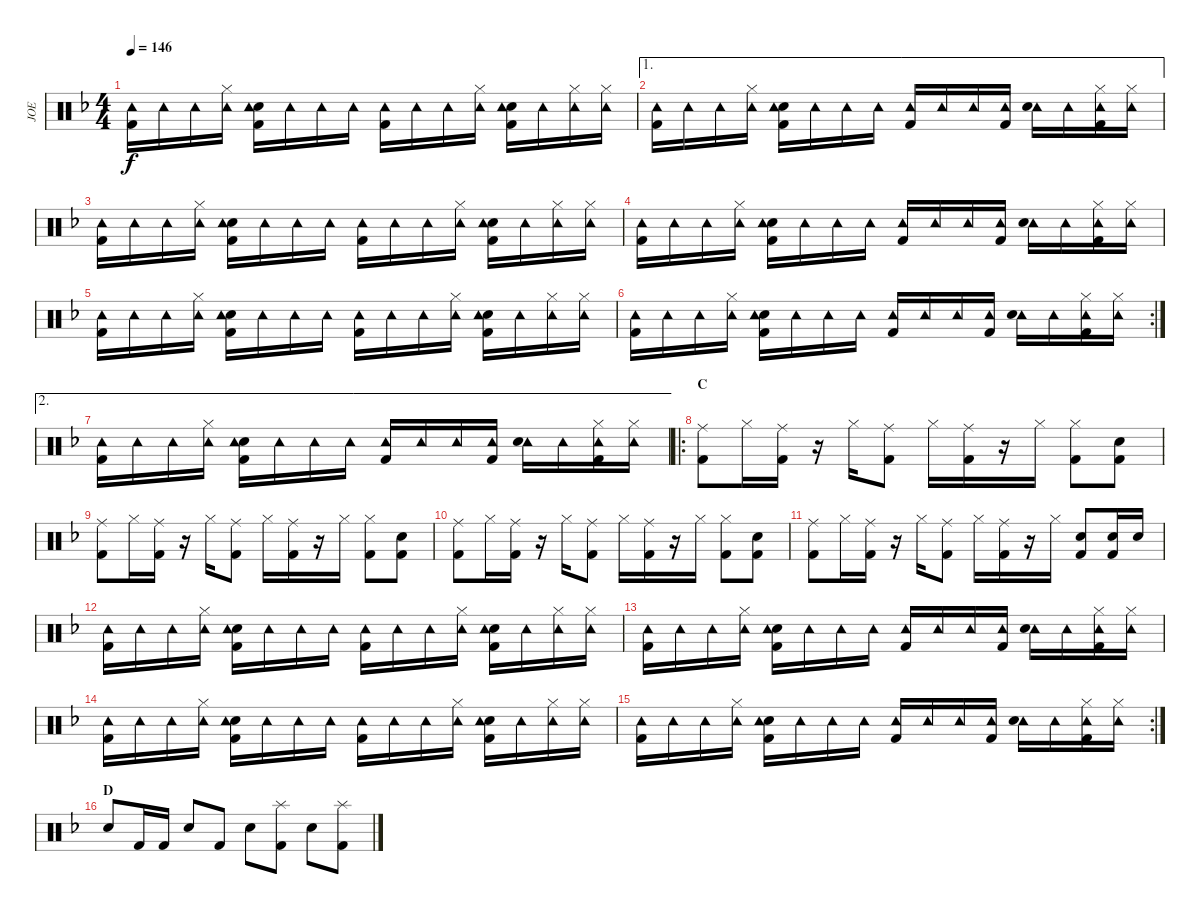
\track ("JOE" "JOE") {instrument percussion}
\staff {score}
\articulation defaults
\ts (4 4)
\tempo 146
\clef neutral
\ks dminor
("Tambourine (hit)" "Kick (hit) 2").16{dy f} "Tambourine (hit)".16 "Tambourine (hit)".16 ("Hi-Hat (closed)" "Tambourine (hit)").16 ("Snare (hit) 2" "Tambourine (hit)" "Kick (hit) 2").16 "Tambourine (hit)".16 "Tambourine (hit)".16 "Tambourine (hit)".16 ("Tambourine (hit)" "Kick (hit) 2").16 "Tambourine (hit)".16 "Tambourine (hit)".16 ("Hi-Hat (closed)" "Tambourine (hit)").16 ("Snare (hit) 2" "Tambourine (hit)" "Kick (hit) 2").16 "Tambourine (hit)".16 ("Hi-Hat (closed)" "Tambourine (hit)").16 ("Hi-Hat (closed)" "Tambourine (hit)").16 |
\ae 1
("Tambourine (hit)" "Kick (hit) 2").16 "Tambourine (hit)".16 "Tambourine (hit)".16 ("Hi-Hat (closed)" "Tambourine (hit)").16 ("Snare (hit) 2" "Tambourine (hit)" "Kick (hit) 2").16 "Tambourine (hit)".16 "Tambourine (hit)".16 "Tambourine (hit)".16 ("Tambourine (hit)" "Kick (hit) 2").16 "Tambourine (hit)".16 "Tambourine (hit)".16 ("Tambourine (hit)" "Kick (hit) 2").16 ("Tambourine (hit)" "Snare (hit) 2").16 "Tambourine (hit)".16 ("Hi-Hat (closed)" "Tambourine (hit)" "Kick (hit) 2").16 ("Hi-Hat (closed)" "Tambourine (hit)").16 |
("Tambourine (hit)" "Kick (hit) 2").16 "Tambourine (hit)".16 "Tambourine (hit)".16 ("Hi-Hat (closed)" "Tambourine (hit)").16 ("Snare (hit) 2" "Tambourine (hit)" "Kick (hit) 2").16 "Tambourine (hit)".16 "Tambourine (hit)".16 "Tambourine (hit)".16 ("Tambourine (hit)" "Kick (hit) 2").16 "Tambourine (hit)".16 "Tambourine (hit)".16 ("Hi-Hat (closed)" "Tambourine (hit)").16 ("Snare (hit) 2" "Tambourine (hit)" "Kick (hit) 2").16 "Tambourine (hit)".16 ("Hi-Hat (closed)" "Tambourine (hit)").16 ("Hi-Hat (closed)" "Tambourine (hit)").16 |
("Tambourine (hit)" "Kick (hit) 2").16 "Tambourine (hit)".16 "Tambourine (hit)".16 ("Hi-Hat (closed)" "Tambourine (hit)").16 ("Snare (hit) 2" "Tambourine (hit)" "Kick (hit) 2").16 "Tambourine (hit)".16 "Tambourine (hit)".16 "Tambourine (hit)".16 ("Tambourine (hit)" "Kick (hit) 2").16 "Tambourine (hit)".16 "Tambourine (hit)".16 ("Tambourine (hit)" "Kick (hit) 2").16 ("Tambourine (hit)" "Snare (hit) 2").16 "Tambourine (hit)".16 ("Hi-Hat (closed)" "Tambourine (hit)" "Kick (hit) 2").16 ("Hi-Hat (closed)" "Tambourine (hit)").16 |
("Tambourine (hit)" "Kick (hit) 2").16 "Tambourine (hit)".16 "Tambourine (hit)".16 ("Hi-Hat (closed)" "Tambourine (hit)").16 ("Snare (hit) 2" "Tambourine (hit)" "Kick (hit) 2").16 "Tambourine (hit)".16 "Tambourine (hit)".16 "Tambourine (hit)".16 ("Tambourine (hit)" "Kick (hit) 2").16 "Tambourine (hit)".16 "Tambourine (hit)".16 ("Hi-Hat (closed)" "Tambourine (hit)").16 ("Snare (hit) 2" "Tambourine (hit)" "Kick (hit) 2").16 "Tambourine (hit)".16 ("Hi-Hat (closed)" "Tambourine (hit)").16 ("Hi-Hat (closed)" "Tambourine (hit)").16 |
\rc 2
("Tambourine (hit)" "Kick (hit) 2").16 "Tambourine (hit)".16 "Tambourine (hit)".16 ("Hi-Hat (closed)" "Tambourine (hit)").16 ("Snare (hit) 2" "Tambourine (hit)" "Kick (hit) 2").16 "Tambourine (hit)".16 "Tambourine (hit)".16 "Tambourine (hit)".16 ("Tambourine (hit)" "Kick (hit) 2").16 "Tambourine (hit)".16 "Tambourine (hit)".16 ("Tambourine (hit)" "Kick (hit) 2").16 ("Tambourine (hit)" "Snare (hit) 2").16 "Tambourine (hit)".16 ("Hi-Hat (closed)" "Tambourine (hit)" "Kick (hit) 2").16 ("Hi-Hat (closed)" "Tambourine (hit)").16 |
\ae 2
("Tambourine (hit)" "Kick (hit) 2").16 "Tambourine (hit)".16 "Tambourine (hit)".16 ("Hi-Hat (closed)" "Tambourine (hit)").16 ("Snare (hit) 2" "Tambourine (hit)" "Kick (hit) 2").16 "Tambourine (hit)".16 "Tambourine (hit)".16 "Tambourine (hit)".16 ("Tambourine (hit)" "Kick (hit) 2").16 "Tambourine (hit)".16 "Tambourine (hit)".16 ("Tambourine (hit)" "Kick (hit) 2").16 ("Tambourine (hit)" "Snare (hit) 2").16 "Tambourine (hit)".16 ("Hi-Hat (closed)" "Tambourine (hit)" "Kick (hit) 2").16 ("Hi-Hat (closed)" "Tambourine (hit)").16 |
\ro
\section ("" "C")
("Ride (middle)" "Kick (hit) 2").8 "Hi-Hat (closed)".16 ("Ride (middle)" "Kick (hit) 2").16 r.16 "Hi-Hat (closed)".16 ("Ride (middle)" "Kick (hit) 2").8 "Hi-Hat (closed)".16 ("Ride (middle)" "Kick (hit) 2").16 r.16 "Hi-Hat (closed)".16 ("Hi-Hat (closed)" "Kick (hit) 2").8 ("Snare (hit) 2" "Kick (hit) 2").8 |
("Ride (middle)" "Kick (hit) 2").8 "Hi-Hat (closed)".16 ("Ride (middle)" "Kick (hit) 2").16 r.16 "Hi-Hat (closed)".16 ("Ride (middle)" "Kick (hit) 2").8 "Hi-Hat (closed)".16 ("Ride (middle)" "Kick (hit) 2").16 r.16 "Hi-Hat (closed)".16 ("Hi-Hat (closed)" "Kick (hit) 2").8 ("Snare (hit) 2" "Kick (hit) 2").8 |
("Ride (middle)" "Kick (hit) 2").8 "Hi-Hat (closed)".16 ("Ride (middle)" "Kick (hit) 2").16 r.16 "Hi-Hat (closed)".16 ("Ride (middle)" "Kick (hit) 2").8 "Hi-Hat (closed)".16 ("Ride (middle)" "Kick (hit) 2").16 r.16 "Hi-Hat (closed)".16 ("Hi-Hat (closed)" "Kick (hit) 2").8 ("Snare (hit) 2" "Kick (hit) 2").8 |
("Ride (middle)" "Kick (hit) 2").8 "Hi-Hat (closed)".16 ("Ride (middle)" "Kick (hit) 2").16 r.16 "Hi-Hat (closed)".16 ("Ride (middle)" "Kick (hit) 2").8 "Hi-Hat (closed)".16 ("Ride (middle)" "Kick (hit) 2").16 r.16 "Hi-Hat (closed)".16 ("Snare (hit) 2" "Kick (hit) 2").8 ("Snare (hit) 2" "Kick (hit) 2").16 "Snare (hit) 2".16 |
("Tambourine (hit)" "Kick (hit) 2").16 "Tambourine (hit)".16 "Tambourine (hit)".16 ("Hi-Hat (closed)" "Tambourine (hit)").16 ("Snare (hit) 2" "Tambourine (hit)" "Kick (hit) 2").16 "Tambourine (hit)".16 "Tambourine (hit)".16 "Tambourine (hit)".16 ("Tambourine (hit)" "Kick (hit) 2").16 "Tambourine (hit)".16 "Tambourine (hit)".16 ("Hi-Hat (closed)" "Tambourine (hit)").16 ("Snare (hit) 2" "Tambourine (hit)" "Kick (hit) 2").16 "Tambourine (hit)".16 ("Hi-Hat (closed)" "Tambourine (hit)").16 ("Hi-Hat (closed)" "Tambourine (hit)").16 |
("Tambourine (hit)" "Kick (hit) 2").16 "Tambourine (hit)".16 "Tambourine (hit)".16 ("Hi-Hat (closed)" "Tambourine (hit)").16 ("Snare (hit) 2" "Tambourine (hit)" "Kick (hit) 2").16 "Tambourine (hit)".16 "Tambourine (hit)".16 "Tambourine (hit)".16 ("Tambourine (hit)" "Kick (hit) 2").16 "Tambourine (hit)".16 "Tambourine (hit)".16 ("Tambourine (hit)" "Kick (hit) 2").16 ("Tambourine (hit)" "Snare (hit) 2").16 "Tambourine (hit)".16 ("Hi-Hat (closed)" "Tambourine (hit)" "Kick (hit) 2").16 ("Hi-Hat (closed)" "Tambourine (hit)").16 |
("Tambourine (hit)" "Kick (hit) 2").16 "Tambourine (hit)".16 "Tambourine (hit)".16 ("Hi-Hat (closed)" "Tambourine (hit)").16 ("Snare (hit) 2" "Tambourine (hit)" "Kick (hit) 2").16 "Tambourine (hit)".16 "Tambourine (hit)".16 "Tambourine (hit)".16 ("Tambourine (hit)" "Kick (hit) 2").16 "Tambourine (hit)".16 "Tambourine (hit)".16 ("Hi-Hat (closed)" "Tambourine (hit)").16 ("Snare (hit) 2" "Tambourine (hit)" "Kick (hit) 2").16 "Tambourine (hit)".16 ("Hi-Hat (closed)" "Tambourine (hit)").16 ("Hi-Hat (closed)" "Tambourine (hit)").16 |
\rc 2
("Tambourine (hit)" "Kick (hit) 2").16 "Tambourine (hit)".16 "Tambourine (hit)".16 ("Hi-Hat (closed)" "Tambourine (hit)").16 ("Snare (hit) 2" "Tambourine (hit)" "Kick (hit) 2").16 "Tambourine (hit)".16 "Tambourine (hit)".16 "Tambourine (hit)".16 ("Tambourine (hit)" "Kick (hit) 2").16 "Tambourine (hit)".16 "Tambourine (hit)".16 ("Tambourine (hit)" "Kick (hit) 2").16 ("Tambourine (hit)" "Snare (hit) 2").16 "Tambourine (hit)".16 ("Hi-Hat (closed)" "Tambourine (hit)" "Kick (hit) 2").16 ("Hi-Hat (closed)" "Tambourine (hit)").16 |
\section ("" "D")
"Snare (hit) 2".8 "Kick (hit) 2".16 "Kick (hit) 2".16 "Snare (hit) 2".8 "Kick (hit) 2".8 "Snare (hit) 2".8 ("Splash (hit)" "Kick (hit) 2").8 "Snare (hit) 2".8 ("Splash (hit)" "Kick (hit) 2").8
